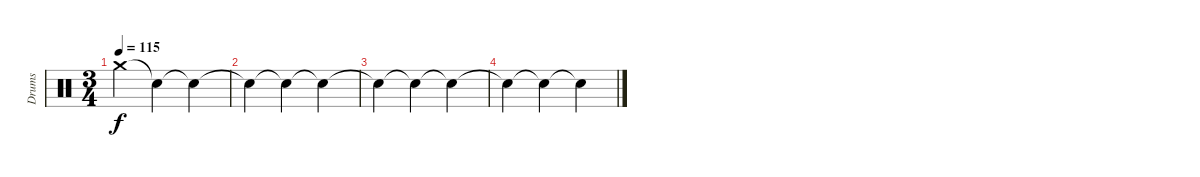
\track ("Drums" "Drums") {instrument percussion}
\staff {score}
\articulation defaults
\ts (3 4)
\tempo 115
\clef neutral
\ks c "Crash medium (hit)"{t}.4{dy f} "Snare (hit)"{t}.4 "Snare (hit)"{t}.4
|
"Snare (hit)"{t}.4 "Snare (hit)"{t}.4 "Snare (hit)"{t}.4 |
"Snare (hit)"{t}.4 "Snare (hit)"{t}.4 "Snare (hit)"{t}.4 |
"Snare (hit)"{t}.4 "Snare (hit)"{t}.4 "Snare (hit)"{t}.4
